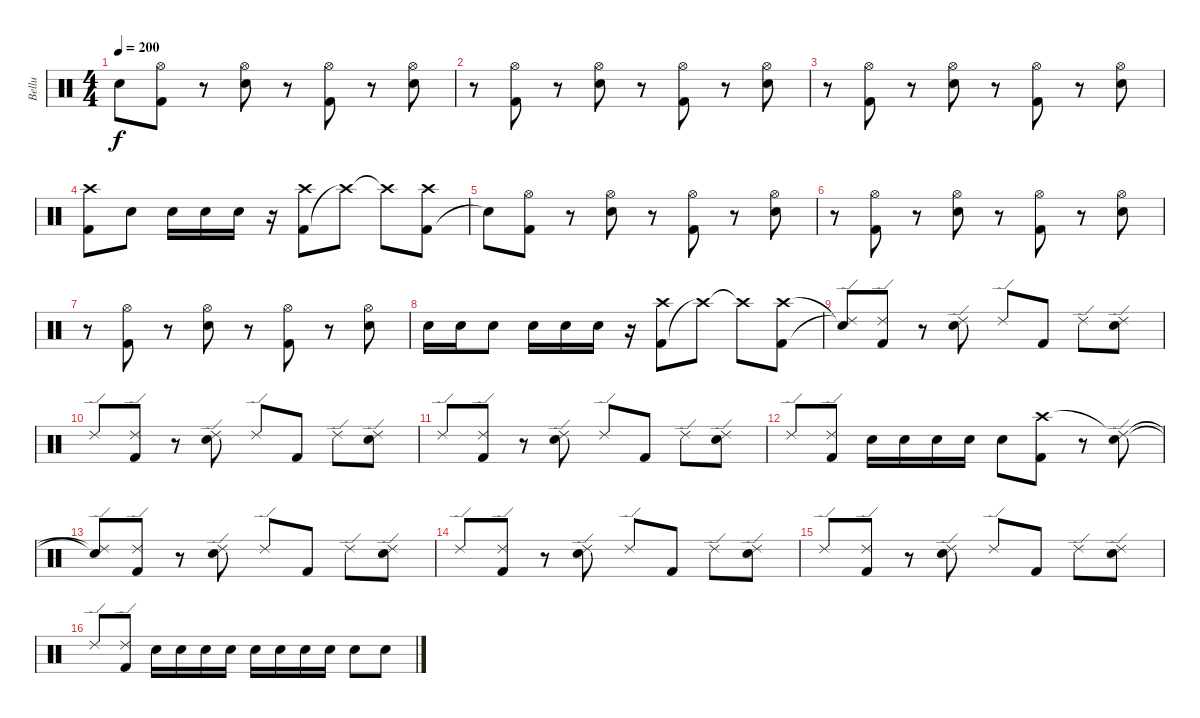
\track ("Bellu" "Bellu") {instrument percussion}
\staff {score}
\articulation defaults
\ts (4 4)
\tempo 200
\clef neutral
\ks c "Snare (hit)"{t}.8{dy f}
("Kick (hit) 2" "Hi-Hat (open)").8 r.8 ("Electric Snare (hit)" "Hi-Hat (open)").8 r.8 ("Kick (hit) 2" "Hi-Hat (open)").8 r.8 ("Electric Snare (hit)" "Hi-Hat (open)").8 |
r.8 ("Kick (hit) 2" "Hi-Hat (open)").8 r.8 ("Electric Snare (hit)" "Hi-Hat (open)").8 r.8 ("Kick (hit) 2" "Hi-Hat (open)").8 r.8 ("Electric Snare (hit)" "Hi-Hat (open)").8 |
r.8 ("Kick (hit) 2" "Hi-Hat (open)").8 r.8 ("Electric Snare (hit)" "Hi-Hat (open)").8 r.8 ("Kick (hit) 2" "Hi-Hat (open)").8 r.8 ("Electric Snare (hit)" "Hi-Hat (open)").8 |
("Kick (hit) 2" "Crash high (hit)").8 "Electric Snare (hit)".8 "Electric Snare (hit)".16 "Electric Snare (hit)".16 "Electric Snare (hit)".16 r.16 ("Kick (hit) 2" "Crash high (hit)").8 "Crash high (hit)"{t}.8 "Crash high (hit)"{t}.8 ("Kick (hit) 2" "Crash high (hit)").8 |
"Snare (hit)"{t}.8 ("Kick (hit) 2" "Hi-Hat (open)").8 r.8 ("Electric Snare (hit)" "Hi-Hat (open)").8 r.8 ("Kick (hit) 2" "Hi-Hat (open)").8 r.8 ("Electric Snare (hit)" "Hi-Hat (open)").8 |
r.8 ("Kick (hit) 2" "Hi-Hat (open)").8 r.8 ("Electric Snare (hit)" "Hi-Hat (open)").8 r.8 ("Kick (hit) 2" "Hi-Hat (open)").8 r.8 ("Electric Snare (hit)" "Hi-Hat (open)").8 |
r.8 ("Kick (hit) 2" "Hi-Hat (open)").8 r.8 ("Electric Snare (hit)" "Hi-Hat (open)").8 r.8 ("Kick (hit) 2" "Hi-Hat (open)").8 r.8 ("Electric Snare (hit)" "Hi-Hat (open)").8 |
"Electric Snare (hit)".16 "Electric Snare (hit)".16 "Electric Snare (hit)".8 "Electric Snare (hit)".16 "Electric Snare (hit)".16 "Electric Snare (hit)".16 r.16 ("Kick (hit) 2" "Crash high (hit)").8 "Crash high (hit)"{t}.8 "Crash high (hit)"{t}.8 ("Kick (hit) 2" "Crash high (hit)").8 |
("Ride (edge) 2"{t} "Snare (hit)"{t}).8 ("Kick (hit) 2" "Ride (edge) 2").8 r.8 ("Electric Snare (hit)" "Ride (edge) 2").8 "Ride (edge) 2".8 "Kick (hit) 2".8 "Ride (edge) 2".8 ("Electric Snare (hit)" "Ride (edge) 2").8 |
"Ride (edge) 2".8 ("Kick (hit) 2" "Ride (edge) 2").8 r.8 ("Electric Snare (hit)" "Ride (edge) 2").8 "Ride (edge) 2".8 "Kick (hit) 2".8 "Ride (edge) 2".8 ("Electric Snare (hit)" "Ride (edge) 2").8 |
"Ride (edge) 2".8 ("Kick (hit) 2" "Ride (edge) 2").8 r.8 ("Electric Snare (hit)" "Ride (edge) 2").8 "Ride (edge) 2".8 "Kick (hit) 2".8 "Ride (edge) 2".8 ("Electric Snare (hit)" "Ride (edge) 2").8 |
"Ride (edge) 2".8 ("Kick (hit) 2" "Ride (edge) 2").8 "Electric Snare (hit)".16 "Electric Snare (hit)".16 "Electric Snare (hit)".16 "Electric Snare (hit)".16 "Electric Snare (hit)".8 ("Kick (hit) 2" "Crash high (hit)").8 r.8 ("Electric Snare (hit)" "Ride (edge) 2"{t}).8 |
("Ride (edge) 2"{t} "Snare (hit)"{t}).8 ("Kick (hit) 2" "Ride (edge) 2").8 r.8 ("Electric Snare (hit)" "Ride (edge) 2").8 "Ride (edge) 2".8 "Kick (hit) 2".8 "Ride (edge) 2".8 ("Electric Snare (hit)" "Ride (edge) 2").8 |
"Ride (edge) 2".8 ("Kick (hit) 2" "Ride (edge) 2").8 r.8 ("Electric Snare (hit)" "Ride (edge) 2").8 "Ride (edge) 2".8 "Kick (hit) 2".8 "Ride (edge) 2".8 ("Electric Snare (hit)" "Ride (edge) 2").8 |
"Ride (edge) 2".8 ("Kick (hit) 2" "Ride (edge) 2").8 r.8 ("Electric Snare (hit)" "Ride (edge) 2").8 "Ride (edge) 2".8 "Kick (hit) 2".8 "Ride (edge) 2".8 ("Electric Snare (hit)" "Ride (edge) 2").8 |
"Ride (edge) 2".8 ("Kick (hit) 2" "Ride (edge) 2").8 "Electric Snare (hit)".16 "Electric Snare (hit)".16 "Electric Snare (hit)".16 "Electric Snare (hit)".16 "Electric Snare (hit)".16 "Electric Snare (hit)".16 "Electric Snare (hit)".16 "Electric Snare (hit)".16 "Electric Snare (hit)".8 "Electric Snare (hit)".8
